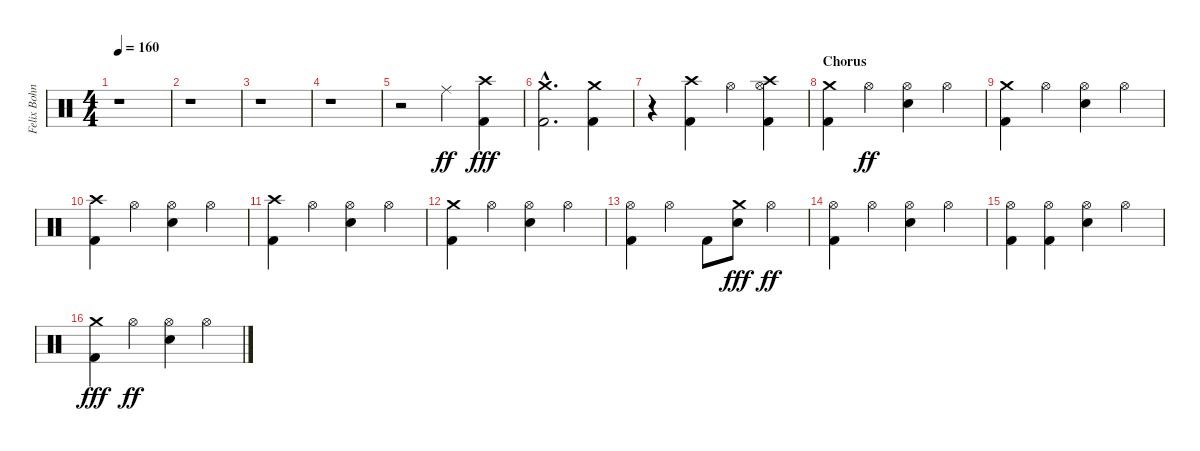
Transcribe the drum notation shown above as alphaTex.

\track ("Felix Bohnke" "Felix Bohn") {instrument percussion}
\staff {score}
\articulation defaults
\ts (4 4)
\tempo 160
\clef neutral
\ks c
r.1{dy ff} |
r.1 |
r.1 |
r.1 |
r.2 "Ride (middle)".4 ("Kick (hit) 2" "Crash high (hit)").4{dy fff} |
("Crash medium (hit)"{hac} "Kick (hit) 2"{hac}).2{d} ("Crash medium (hit)" "Kick (hit) 2").4 |
r.4 ("Kick (hit) 2" "Crash high (hit)").4 "Hi-Hat (open)".4 ("Hi-Hat (open)" "Crash high (hit)" "Kick (hit) 2").4 |
\section ("" "Chorus")
("Kick (hit) 2" "Crash medium (hit)").4 "Hi-Hat (open)".4{dy ff} ("Snare (hit) 2" "Hi-Hat (open)").4 "Hi-Hat (open)".4 |
("Kick (hit) 2" "Crash medium (hit)").4 "Hi-Hat (open)".4 ("Snare (hit) 2" "Hi-Hat (open)").4 "Hi-Hat (open)".4 |
("Kick (hit) 2" "Crash high (hit)").4 "Hi-Hat (open)".4 ("Snare (hit) 2" "Hi-Hat (open)").4 "Hi-Hat (open)".4 |
("Kick (hit) 2" "Crash high (hit)").4 "Hi-Hat (open)".4 ("Snare (hit) 2" "Hi-Hat (open)").4 "Hi-Hat (open)".4 |
("Kick (hit) 2" "Crash medium (hit)").4 "Hi-Hat (open)".4 ("Snare (hit) 2" "Hi-Hat (open)").4 "Hi-Hat (open)".4 |
("Kick (hit) 2" "Hi-Hat (open)").4 "Hi-Hat (open)".4 "Kick (hit) 2".8 ("Snare (hit) 2" "Crash medium (hit)").8{dy fff} "Hi-Hat (open)".4{dy ff} |
("Kick (hit) 2" "Hi-Hat (open)").4 "Hi-Hat (open)".4 ("Snare (hit) 2" "Hi-Hat (open)").4 "Hi-Hat (open)".4 |
("Kick (hit) 2" "Hi-Hat (open)").4 ("Kick (hit) 2" "Hi-Hat (open)").4 ("Snare (hit) 2" "Hi-Hat (open)").4 "Hi-Hat (open)".4 |
("Kick (hit) 2" "Crash medium (hit)").4{dy fff} "Hi-Hat (open)".4{dy ff} ("Snare (hit) 2" "Hi-Hat (open)").4 "Hi-Hat (open)".4
